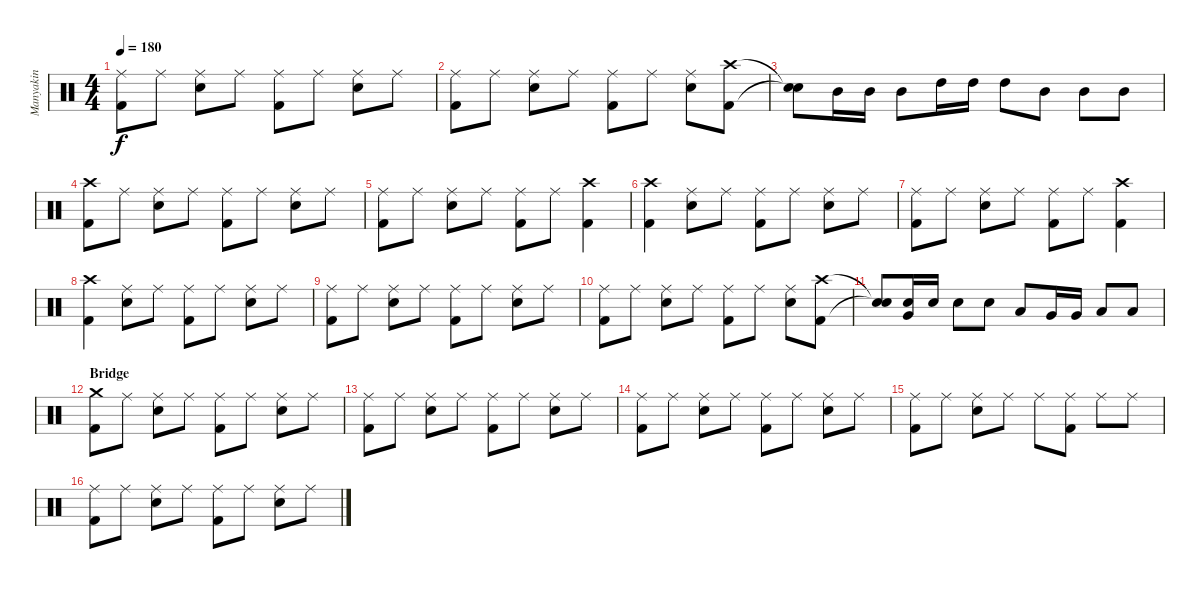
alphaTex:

\track ("Manyakin" "Manyakin") {instrument percussion}
\staff {score}
\articulation defaults
\ts (4 4)
\tempo 180
\clef neutral
\ks c
("Kick (hit) 2" "Ride (middle)").8{dy f} "Ride (middle)".8 ("Snare (hit) 2" "Ride (middle)").8 "Ride (middle)".8 ("Kick (hit) 2" "Ride (middle)").8 "Ride (middle)".8 ("Snare (hit) 2" "Ride (middle)").8 "Ride (middle)".8 |
("Kick (hit) 2" "Ride (middle)").8 "Ride (middle)".8 ("Snare (hit) 2" "Ride (middle)").8 "Ride (middle)".8 ("Kick (hit) 2" "Ride (middle)").8 "Ride (middle)".8 ("Snare (hit) 2" "Ride (middle)").8 ("Kick (hit) 2" "Crash high (hit)").8 |
("Snare (hit)"{t} "Snare (hit)"{t}).8 "Mid Tom (hit)".16 "Mid Tom (hit)".16 "Mid Tom (hit)".8 "High Tom (hit)".16 "High Tom (hit)".16 "High Tom (hit)".8 "Mid Tom (hit)".8 "Mid Tom (hit)".8 "Mid Tom (hit)".8 |
("Kick (hit) 2" "Crash high (hit)").8 "Ride (middle)".8 ("Snare (hit) 2" "Ride (middle)").8 "Ride (middle)".8 ("Kick (hit) 2" "Ride (middle)").8 "Ride (middle)".8 ("Snare (hit) 2" "Ride (middle)").8 "Ride (middle)".8 |
("Kick (hit) 2" "Ride (middle)").8 "Ride (middle)".8 ("Snare (hit) 2" "Ride (middle)").8 "Ride (middle)".8 ("Kick (hit) 2" "Ride (middle)").8 "Ride (middle)".8 ("Kick (hit) 2" "Crash high (hit)").4 |
("Kick (hit) 2" "Crash high (hit)").4 ("Snare (hit) 2" "Ride (middle)").8 "Ride (middle)".8 ("Kick (hit) 2" "Ride (middle)").8 "Ride (middle)".8 ("Snare (hit) 2" "Ride (middle)").8 "Ride (middle)".8 |
("Kick (hit) 2" "Ride (middle)").8 "Ride (middle)".8 ("Snare (hit) 2" "Ride (middle)").8 "Ride (middle)".8 ("Kick (hit) 2" "Ride (middle)").8 "Ride (middle)".8 ("Kick (hit) 2" "Crash high (hit)").4 |
("Kick (hit) 2" "Crash high (hit)").4 ("Snare (hit) 2" "Ride (middle)").8 "Ride (middle)".8 ("Kick (hit) 2" "Ride (middle)").8 "Ride (middle)".8 ("Snare (hit) 2" "Ride (middle)").8 "Ride (middle)".8 |
("Kick (hit) 2" "Ride (middle)").8 "Ride (middle)".8 ("Snare (hit) 2" "Ride (middle)").8 "Ride (middle)".8 ("Kick (hit) 2" "Ride (middle)").8 "Ride (middle)".8 ("Snare (hit) 2" "Ride (middle)").8 "Ride (middle)".8 |
("Kick (hit) 2" "Ride (middle)").8 "Ride (middle)".8 ("Snare (hit) 2" "Ride (middle)").8 "Ride (middle)".8 ("Kick (hit) 2" "Ride (middle)").8 "Ride (middle)".8 ("Snare (hit) 2" "Ride (middle)").8 ("Kick (hit) 2" "Crash high (hit)").8 |
("Snare (hit)"{t} "Snare (hit)"{t}).8 ("Very Low Tom (hit)" "Snare (hit) 2").16 "Snare (hit) 2".16 "Snare (hit) 2".8 "Snare (hit) 2".8 "Low Tom (hit)".8 "Very Low Tom (hit)".16 "Very Low Tom (hit)".16 "Low Floor Tom (hit)".8 "Low Floor Tom (hit)".8 |
\section ("" "Bridge")
("Kick (hit) 2" "Crash medium (hit)").8 "Ride (middle)".8 ("Snare (hit) 2" "Ride (middle)").8 "Ride (middle)".8 ("Kick (hit) 2" "Ride (middle)").8 "Ride (middle)".8 ("Snare (hit) 2" "Ride (middle)").8 "Ride (middle)".8 |
("Kick (hit) 2" "Ride (middle)").8 "Ride (middle)".8 ("Snare (hit) 2" "Ride (middle)").8 "Ride (middle)".8 ("Kick (hit) 2" "Ride (middle)").8 "Ride (middle)".8 ("Snare (hit) 2" "Ride (middle)").8 "Ride (middle)".8 |
("Kick (hit) 2" "Ride (middle)").8 "Ride (middle)".8 ("Snare (hit) 2" "Ride (middle)").8 "Ride (middle)".8 ("Kick (hit) 2" "Ride (middle)").8 "Ride (middle)".8 ("Snare (hit) 2" "Ride (middle)").8 "Ride (middle)".8 |
("Kick (hit) 2" "Ride (middle)").8 "Ride (middle)".8 ("Snare (hit) 2" "Ride (middle)").8 "Ride (middle)".8 "Ride (middle)".8 ("Kick (hit) 2" "Ride (middle)").8 "Ride (middle)".8 "Ride (middle)".8 |
("Kick (hit) 2" "Ride (middle)").8 "Ride (middle)".8 ("Snare (hit) 2" "Ride (middle)").8 "Ride (middle)".8 ("Kick (hit) 2" "Ride (middle)").8 "Ride (middle)".8 ("Snare (hit) 2" "Ride (middle)").8 "Ride (middle)".8
